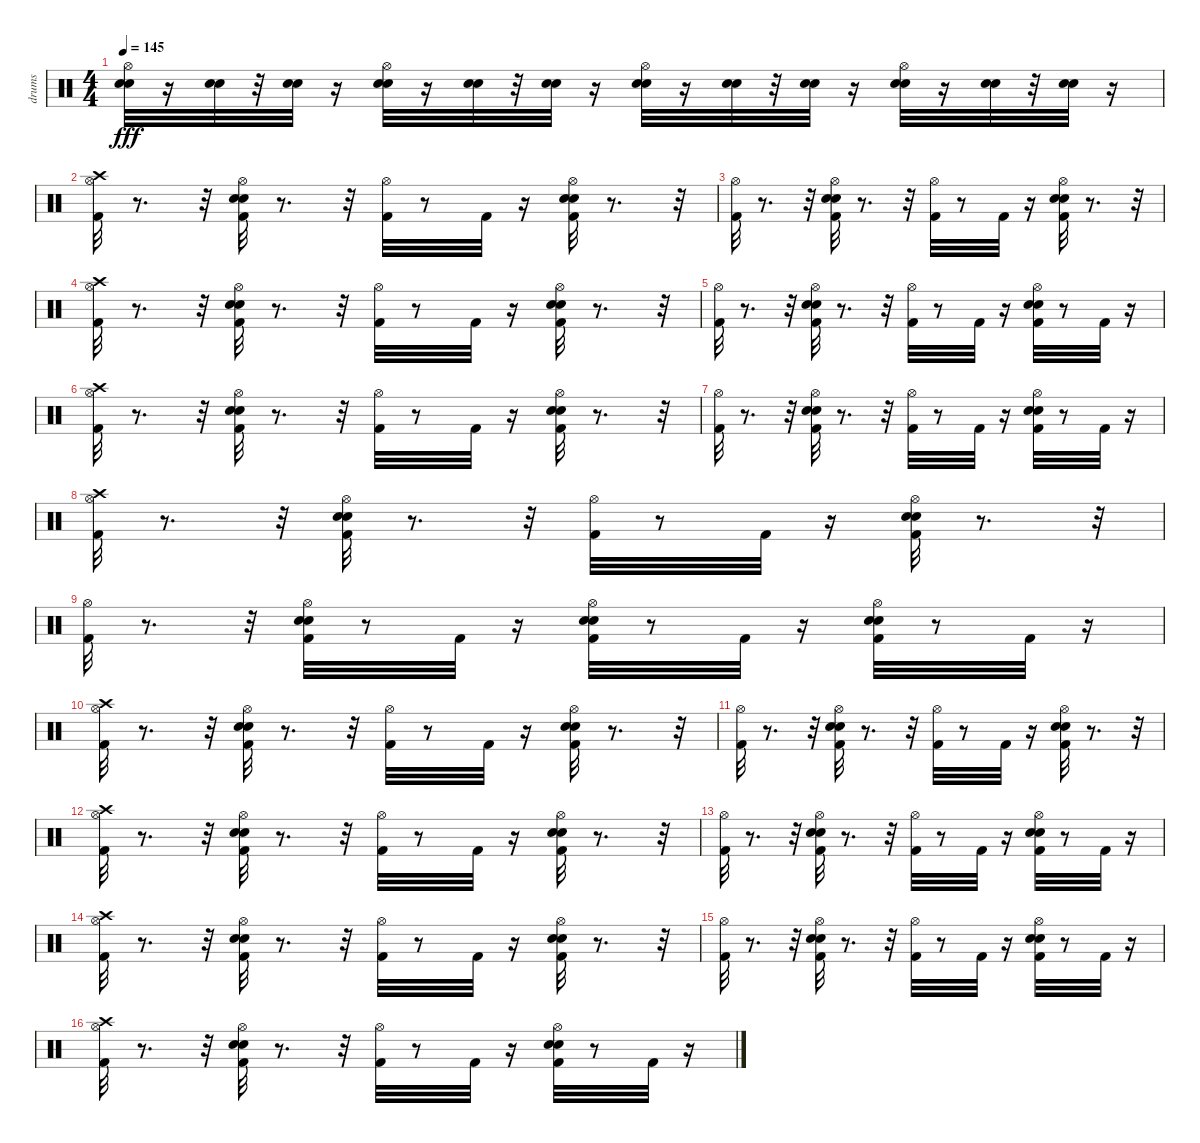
\track ("drums" "drums") {instrument percussion}
\staff {score}
\articulation defaults
\ts (4 4)
\tempo 145
\clef neutral
\ks c
("Hi-Hat (open)" "Snare (hit) 2" "Electric Snare (hit)").32{dy fff} r.16 ("Snare (hit) 2" "Electric Snare (hit)").32 r.32 ("Snare (hit) 2" "Electric Snare (hit)").32 r.16 ("Hi-Hat (open)" "Snare (hit) 2" "Electric Snare (hit)").32 r.16 ("Snare (hit) 2" "Electric Snare (hit)").32 r.32 ("Snare (hit) 2" "Electric Snare (hit)").32 r.16 ("Hi-Hat (open)" "Snare (hit) 2" "Electric Snare (hit)").32 r.16 ("Snare (hit) 2" "Electric Snare (hit)").32 r.32 ("Snare (hit) 2" "Electric Snare (hit)").32 r.16 ("Hi-Hat (open)" "Snare (hit) 2" "Electric Snare (hit)").32 r.16 ("Snare (hit) 2" "Electric Snare (hit)").32 r.32 ("Snare (hit) 2" "Electric Snare (hit)").32 r.16 |
("Crash high (hit)" "Hi-Hat (open)" "Kick (hit) 2").32 r.8{d} r.32 ("Hi-Hat (open)" "Kick (hit) 2" "Snare (hit) 2" "Electric Snare (hit)").32 r.8{d} r.32 ("Hi-Hat (open)" "Kick (hit) 2").32 r.8 "Kick (hit) 2".32 r.16 ("Hi-Hat (open)" "Kick (hit) 2" "Snare (hit) 2" "Electric Snare (hit)").32 r.8{d} r.32 |
("Kick (hit) 2" "Hi-Hat (open)").32 r.8{d} r.32 ("Hi-Hat (open)" "Kick (hit) 2" "Snare (hit) 2" "Electric Snare (hit)").32 r.8{d} r.32 ("Hi-Hat (open)" "Kick (hit) 2").32 r.8 "Kick (hit) 2".32 r.16 ("Hi-Hat (open)" "Kick (hit) 2" "Snare (hit) 2" "Electric Snare (hit)").32 r.8{d} r.32 |
("Kick (hit) 2" "Hi-Hat (open)" "Crash high (hit)").32 r.8{d} r.32 ("Hi-Hat (open)" "Kick (hit) 2" "Snare (hit) 2" "Electric Snare (hit)").32 r.8{d} r.32 ("Hi-Hat (open)" "Kick (hit) 2").32 r.8 "Kick (hit) 2".32 r.16 ("Hi-Hat (open)" "Kick (hit) 2" "Snare (hit) 2" "Electric Snare (hit)").32 r.8{d} r.32 |
("Kick (hit) 2" "Hi-Hat (open)").32 r.8{d} r.32 ("Hi-Hat (open)" "Kick (hit) 2" "Snare (hit) 2" "Electric Snare (hit)").32 r.8{d} r.32 ("Hi-Hat (open)" "Kick (hit) 2").32 r.8 "Kick (hit) 2".32 r.16 ("Hi-Hat (open)" "Kick (hit) 2" "Snare (hit) 2" "Electric Snare (hit)").32 r.8 "Kick (hit) 2".32 r.16 |
("Kick (hit) 2" "Hi-Hat (open)" "Crash high (hit)").32 r.8{d} r.32 ("Hi-Hat (open)" "Kick (hit) 2" "Snare (hit) 2" "Electric Snare (hit)").32 r.8{d} r.32 ("Hi-Hat (open)" "Kick (hit) 2").32 r.8 "Kick (hit) 2".32 r.16 ("Hi-Hat (open)" "Kick (hit) 2" "Snare (hit) 2" "Electric Snare (hit)").32 r.8{d} r.32 |
("Kick (hit) 2" "Hi-Hat (open)").32 r.8{d} r.32 ("Hi-Hat (open)" "Kick (hit) 2" "Snare (hit) 2" "Electric Snare (hit)").32 r.8{d} r.32 ("Hi-Hat (open)" "Kick (hit) 2").32 r.8 "Kick (hit) 2".32 r.16 ("Hi-Hat (open)" "Kick (hit) 2" "Snare (hit) 2" "Electric Snare (hit)").32 r.8 "Kick (hit) 2".32 r.16 |
("Kick (hit) 2" "Hi-Hat (open)" "Crash high (hit)").32 r.8{d} r.32 ("Hi-Hat (open)" "Kick (hit) 2" "Snare (hit) 2" "Electric Snare (hit)").32 r.8{d} r.32 ("Hi-Hat (open)" "Kick (hit) 2").32 r.8 "Kick (hit) 2".32 r.16 ("Hi-Hat (open)" "Kick (hit) 2" "Snare (hit) 2" "Electric Snare (hit)").32 r.8{d} r.32 |
("Kick (hit) 2" "Hi-Hat (open)").32 r.8{d} r.32 ("Hi-Hat (open)" "Kick (hit) 2" "Snare (hit) 2" "Electric Snare (hit)").32 r.8 "Kick (hit) 2".32 r.16 ("Hi-Hat (open)" "Kick (hit) 2" "Snare (hit) 2" "Electric Snare (hit)").32 r.8 "Kick (hit) 2".32 r.16 ("Hi-Hat (open)" "Kick (hit) 2" "Snare (hit) 2" "Electric Snare (hit)").32 r.8 "Kick (hit) 2".32 r.16 |
("Crash high (hit)" "Hi-Hat (open)" "Kick (hit) 2").32 r.8{d} r.32 ("Hi-Hat (open)" "Kick (hit) 2" "Snare (hit) 2" "Electric Snare (hit)").32 r.8{d} r.32 ("Hi-Hat (open)" "Kick (hit) 2").32 r.8 "Kick (hit) 2".32 r.16 ("Hi-Hat (open)" "Kick (hit) 2" "Snare (hit) 2" "Electric Snare (hit)").32 r.8{d} r.32 |
("Kick (hit) 2" "Hi-Hat (open)").32 r.8{d} r.32 ("Hi-Hat (open)" "Kick (hit) 2" "Snare (hit) 2" "Electric Snare (hit)").32 r.8{d} r.32 ("Hi-Hat (open)" "Kick (hit) 2").32 r.8 "Kick (hit) 2".32 r.16 ("Hi-Hat (open)" "Kick (hit) 2" "Snare (hit) 2" "Electric Snare (hit)").32 r.8{d} r.32 |
("Kick (hit) 2" "Hi-Hat (open)" "Crash high (hit)").32 r.8{d} r.32 ("Hi-Hat (open)" "Kick (hit) 2" "Snare (hit) 2" "Electric Snare (hit)").32 r.8{d} r.32 ("Hi-Hat (open)" "Kick (hit) 2").32 r.8 "Kick (hit) 2".32 r.16 ("Hi-Hat (open)" "Kick (hit) 2" "Snare (hit) 2" "Electric Snare (hit)").32 r.8{d} r.32 |
("Kick (hit) 2" "Hi-Hat (open)").32 r.8{d} r.32 ("Hi-Hat (open)" "Kick (hit) 2" "Snare (hit) 2" "Electric Snare (hit)").32 r.8{d} r.32 ("Hi-Hat (open)" "Kick (hit) 2").32 r.8 "Kick (hit) 2".32 r.16 ("Hi-Hat (open)" "Kick (hit) 2" "Snare (hit) 2" "Electric Snare (hit)").32 r.8 "Kick (hit) 2".32 r.16 |
("Kick (hit) 2" "Hi-Hat (open)" "Crash high (hit)").32 r.8{d} r.32 ("Hi-Hat (open)" "Kick (hit) 2" "Snare (hit) 2" "Electric Snare (hit)").32 r.8{d} r.32 ("Hi-Hat (open)" "Kick (hit) 2").32 r.8 "Kick (hit) 2".32 r.16 ("Hi-Hat (open)" "Kick (hit) 2" "Snare (hit) 2" "Electric Snare (hit)").32 r.8{d} r.32 |
("Kick (hit) 2" "Hi-Hat (open)").32 r.8{d} r.32 ("Hi-Hat (open)" "Kick (hit) 2" "Snare (hit) 2" "Electric Snare (hit)").32 r.8{d} r.32 ("Hi-Hat (open)" "Kick (hit) 2").32 r.8 "Kick (hit) 2".32 r.16 ("Hi-Hat (open)" "Kick (hit) 2" "Snare (hit) 2" "Electric Snare (hit)").32 r.8 "Kick (hit) 2".32 r.16 |
("Kick (hit) 2" "Hi-Hat (open)" "Crash high (hit)").32 r.8{d} r.32 ("Hi-Hat (open)" "Kick (hit) 2" "Snare (hit) 2" "Electric Snare (hit)").32 r.8{d} r.32 ("Hi-Hat (open)" "Kick (hit) 2").32 r.8 "Kick (hit) 2".32 r.16 ("Hi-Hat (open)" "Kick (hit) 2" "Snare (hit) 2" "Electric Snare (hit)").32 r.8 "Kick (hit) 2".32 r.16
